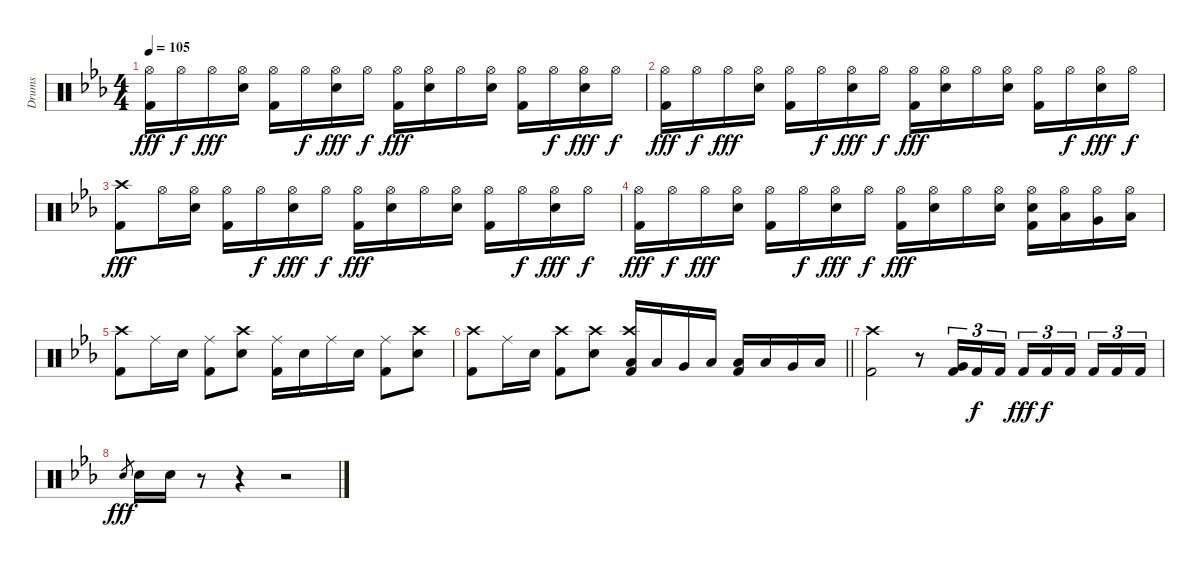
\track ("Drums" "Drums") {instrument percussion}
\staff {score}
\articulation defaults
\ts (4 4)
\tempo 105
\clef neutral
\ks eb
("Hi-Hat (open)" "Kick (hit) 2").16{dy fff} "Hi-Hat (open)".16{dy f} "Hi-Hat (open)".16{dy fff} ("Hi-Hat (open)" "Snare (hit) 2").16 ("Hi-Hat (open)" "Kick (hit) 2").16 "Hi-Hat (open)".16{dy f} ("Hi-Hat (open)" "Snare (hit) 2").16{dy fff} "Hi-Hat (open)".16{dy f} ("Hi-Hat (open)" "Kick (hit) 2").16{dy fff} ("Hi-Hat (open)" "Snare (hit) 2").16 "Hi-Hat (open)".16 ("Hi-Hat (open)" "Snare (hit) 2").16 ("Hi-Hat (open)" "Kick (hit) 2").16 "Hi-Hat (open)".16{dy f} ("Hi-Hat (open)" "Snare (hit) 2").16{dy fff} "Hi-Hat (open)".16{dy f} |
("Hi-Hat (open)" "Kick (hit) 2").16{dy fff} "Hi-Hat (open)".16{dy f} "Hi-Hat (open)".16{dy fff} ("Hi-Hat (open)" "Snare (hit) 2").16 ("Hi-Hat (open)" "Kick (hit) 2").16 "Hi-Hat (open)".16{dy f} ("Hi-Hat (open)" "Snare (hit) 2").16{dy fff} "Hi-Hat (open)".16{dy f} ("Hi-Hat (open)" "Kick (hit) 2").16{dy fff} ("Hi-Hat (open)" "Snare (hit) 2").16 "Hi-Hat (open)".16 ("Hi-Hat (open)" "Snare (hit) 2").16 ("Hi-Hat (open)" "Kick (hit) 2").16 "Hi-Hat (open)".16{dy f} ("Hi-Hat (open)" "Snare (hit) 2").16{dy fff} "Hi-Hat (open)".16{dy f} |
("Crash high (hit)" "Kick (hit) 2").8{dy fff} "Hi-Hat (open)".16 ("Hi-Hat (open)" "Snare (hit) 2").16 ("Hi-Hat (open)" "Kick (hit) 2").16 "Hi-Hat (open)".16{dy f} ("Hi-Hat (open)" "Snare (hit) 2").16{dy fff} "Hi-Hat (open)".16{dy f} ("Hi-Hat (open)" "Kick (hit) 2").16{dy fff} ("Hi-Hat (open)" "Snare (hit) 2").16 "Hi-Hat (open)".16 ("Hi-Hat (open)" "Snare (hit) 2").16 ("Hi-Hat (open)" "Kick (hit) 2").16 "Hi-Hat (open)".16{dy f} ("Hi-Hat (open)" "Snare (hit) 2").16{dy fff} "Hi-Hat (open)".16{dy f} |
("Hi-Hat (open)" "Kick (hit) 2").16{dy fff} "Hi-Hat (open)".16{dy f} "Hi-Hat (open)".16{dy fff} ("Hi-Hat (open)" "Snare (hit) 2").16 ("Hi-Hat (open)" "Kick (hit) 2").16 "Hi-Hat (open)".16{dy f} ("Hi-Hat (open)" "Snare (hit) 2").16{dy fff} "Hi-Hat (open)".16{dy f} ("Hi-Hat (open)" "Kick (hit) 2").16{dy fff} ("Hi-Hat (open)" "Snare (hit) 2").16 "Hi-Hat (open)".16 ("Hi-Hat (open)" "Snare (hit) 2").16 ("Hi-Hat (open)" "Snare (hit) 2" "Kick (hit) 2").16 ("Hi-Hat (open)" "Low Tom (hit)").16 ("Hi-Hat (open)" "Very Low Tom (hit)").16 ("Hi-Hat (open)" "Low Floor Tom (hit)").16 |
("Crash high (hit)" "Kick (hit) 2").8 "Ride (middle)".16 "Snare (hit) 2".16 ("Ride (middle)" "Kick (hit) 2").8 ("Crash high (hit)" "Snare (hit) 2").8 ("Ride (middle)" "Kick (hit) 2").16 "Snare (hit) 2".16 "Ride (middle)".16 "Snare (hit) 2".16 ("Ride (middle)" "Kick (hit) 2").8 ("Crash high (hit)" "Snare (hit) 2").8 |
\barLineRight lightlight
("Crash high (hit)" "Kick (hit) 2").8 "Ride (middle)".16 "Snare (hit) 2".16 ("Crash high (hit)" "Kick (hit) 2").8 ("Crash high (hit)" "Snare (hit) 2").8 ("Crash high (hit)" "Low Tom (hit)" "Kick (hit) 2").16 "Low Tom (hit)".16 "Very Low Tom (hit)".16 "Low Floor Tom (hit)".16 ("Low Tom (hit)" "Kick (hit) 2").16 "Low Tom (hit)".16 "Very Low Tom (hit)".16 "Low Floor Tom (hit)".16 |
("Crash high (hit)" "Kick (hit) 2").2 r.8 ("Very Low Tom (hit)" "Kick (hit) 2").16{tu (3 2)} "Kick (hit) 2".16{tu (3 2) dy f} "Kick (hit) 2".16{tu (3 2)} "Kick (hit) 2".16{tu (3 2) dy fff} "Kick (hit) 2".16{tu (3 2) dy f} "Kick (hit) 2".16{tu (3 2)} "Kick (hit) 2".16{tu (3 2)} "Kick (hit) 2".16{tu (3 2)} "Kick (hit) 2".16{tu (3 2)} |
"Snare (hit) 2".8{gr dy fff} "Snare (hit) 2".16 "Snare (hit) 2".16 r.8 r.4 r.2
